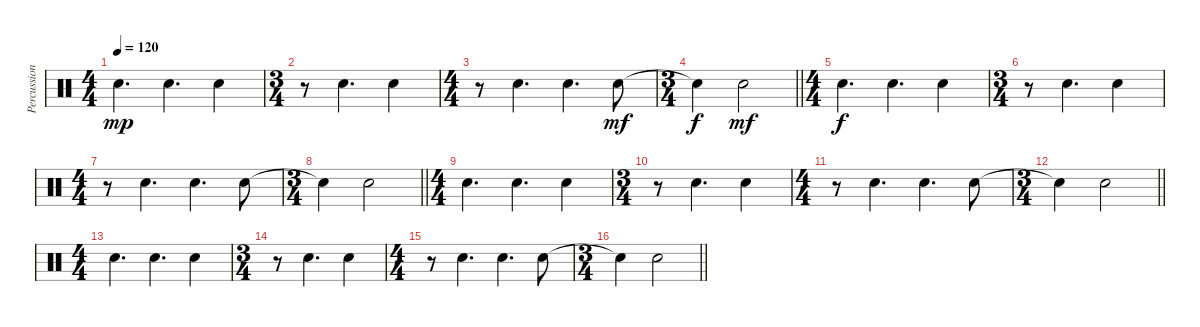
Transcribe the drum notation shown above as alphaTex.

\track ("Percussion" "Percussion") {instrument percussion}
\staff {score}
\articulation defaults
\ts (4 4)
\tempo 120
\clef neutral
\ks c "Electric Snare (hit)".4{d dy mp} "Electric Snare (hit)".4{d} "Electric Snare (hit)".4
|
\ts (3 4)
r.8 "Electric Snare (hit)".4{d} "Electric Snare (hit)".4 |
\ts (4 4)
r.8 "Electric Snare (hit)".4{d} "Electric Snare (hit)".4{d} "Electric Snare (hit)".8{dy mf} |
\ts (3 4)
\barLineRight lightlight "Snare (hit)"{t}.4{dy f} "Electric Snare (hit)".2{dy mf}
|
\ts (4 4)
"Electric Snare (hit)".4{d dy f} "Electric Snare (hit)".4{d} "Electric Snare (hit)".4 |
\ts (3 4)
r.8 "Electric Snare (hit)".4{d} "Electric Snare (hit)".4 |
\ts (4 4)
r.8 "Electric Snare (hit)".4{d} "Electric Snare (hit)".4{d} "Electric Snare (hit)".8 |
\ts (3 4)
\barLineRight lightlight "Snare (hit)"{t}.4 "Electric Snare (hit)".2
|
\ts (4 4)
"Electric Snare (hit)".4{d} "Electric Snare (hit)".4{d} "Electric Snare (hit)".4 |
\ts (3 4)
r.8 "Electric Snare (hit)".4{d} "Electric Snare (hit)".4 |
\ts (4 4)
r.8 "Electric Snare (hit)".4{d} "Electric Snare (hit)".4{d} "Electric Snare (hit)".8 |
\ts (3 4)
\barLineRight lightlight "Snare (hit)"{t}.4 "Electric Snare (hit)".2
|
\ts (4 4)
"Electric Snare (hit)".4{d} "Electric Snare (hit)".4{d} "Electric Snare (hit)".4 |
\ts (3 4)
r.8 "Electric Snare (hit)".4{d} "Electric Snare (hit)".4 |
\ts (4 4)
r.8 "Electric Snare (hit)".4{d} "Electric Snare (hit)".4{d} "Electric Snare (hit)".8 |
\ts (3 4)
\barLineRight lightlight "Snare (hit)"{t}.4 "Electric Snare (hit)".2
